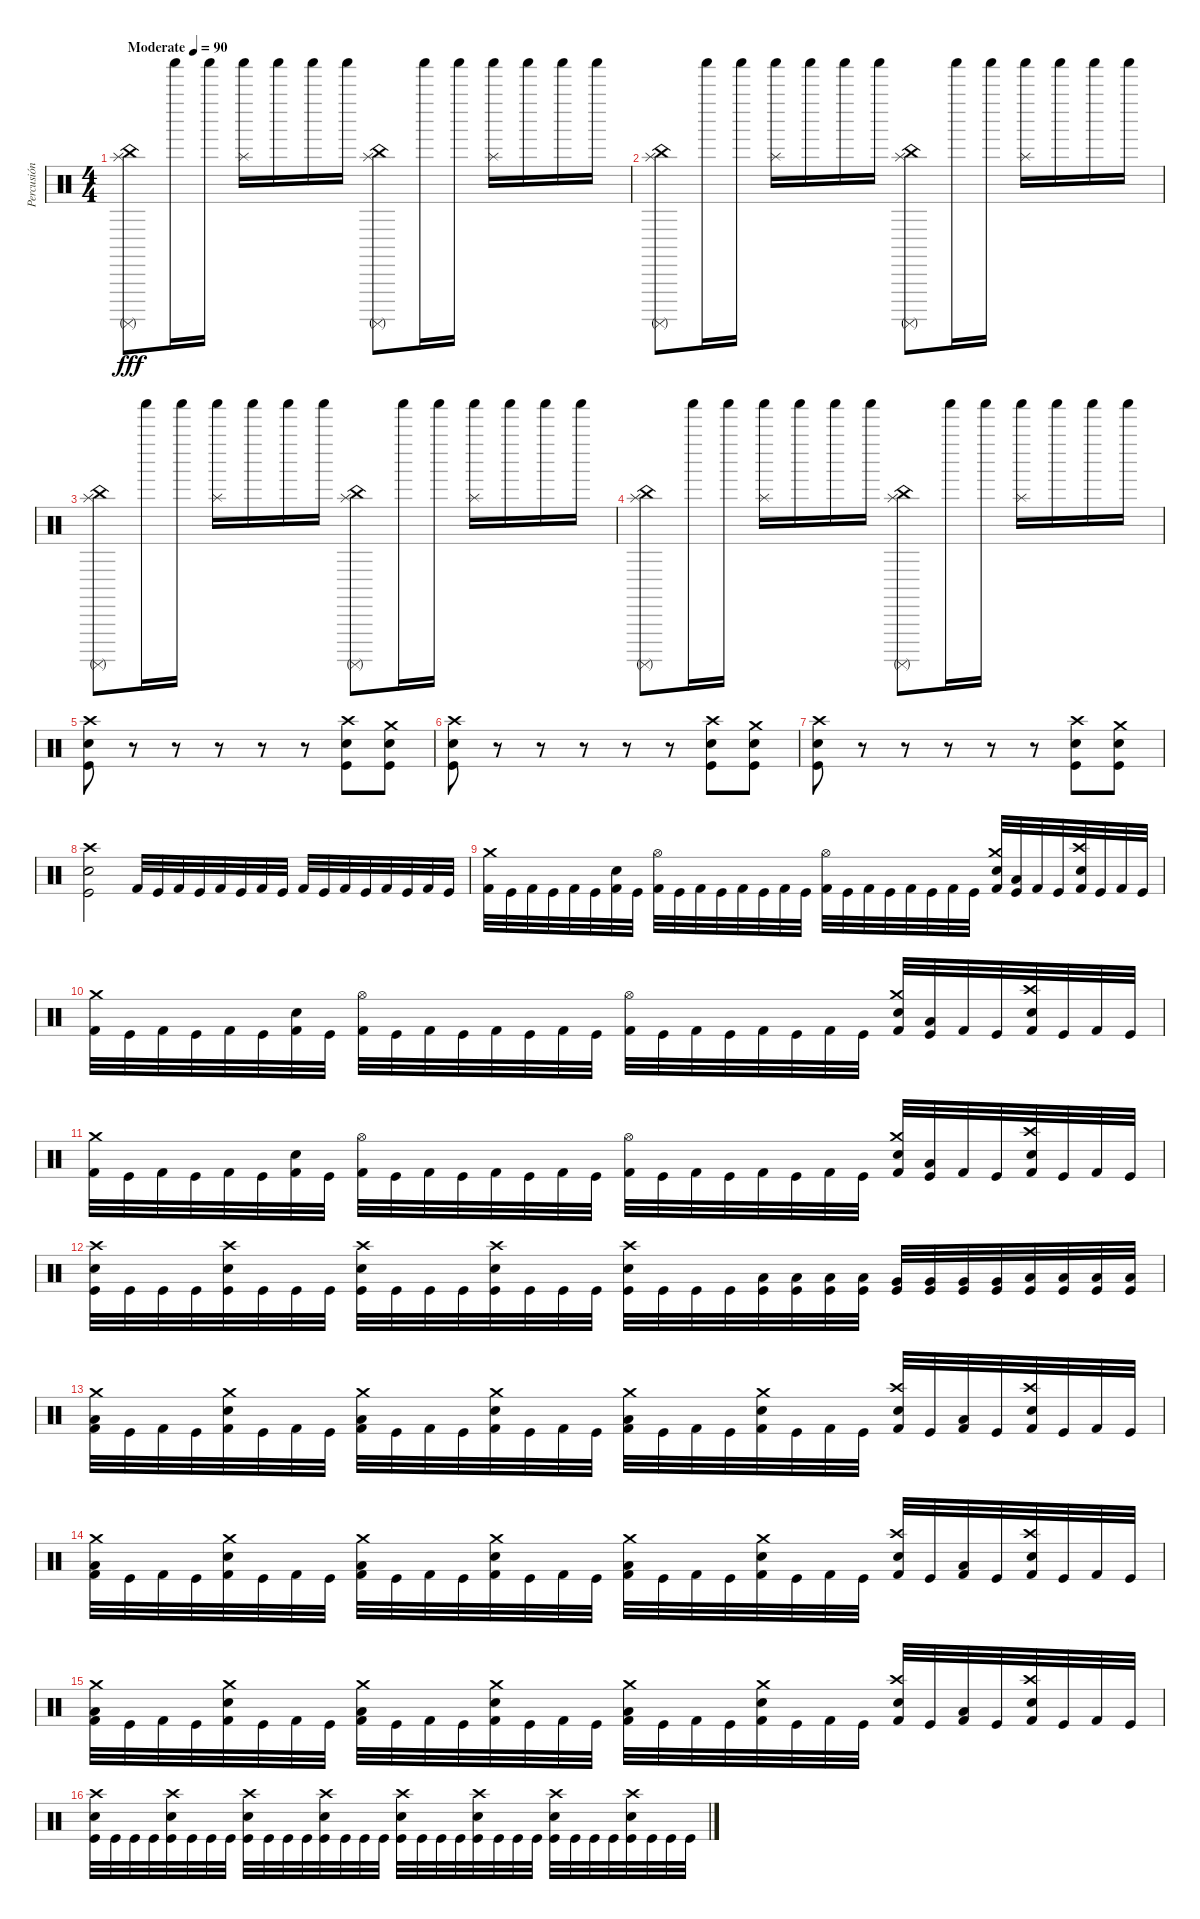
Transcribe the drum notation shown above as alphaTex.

\track ("Percusión" "Percusión") {instrument percussion}
\staff {score}
\articulation defaults
\ts (4 4)
\tempo (90 "Moderate")
\clef neutral
\ks c
("China (hit)" "Surdo (mute)" "Splash (hit)").8{dy fff volume 0} "Shaker (hit)".16{volume 16} "Shaker (hit)".16 ("Splash (hit)" "Shaker (hit)").16 "Shaker (hit)".16 "Shaker (hit)".16 "Shaker (hit)".16 ("China (hit)" "Surdo (mute)" "Splash (hit)").8 "Shaker (hit)".16 "Shaker (hit)".16 ("Splash (hit)" "Shaker (hit)").16 "Shaker (hit)".16 "Shaker (hit)".16 "Shaker (hit)".16 |
("China (hit)" "Surdo (mute)" "Splash (hit)").8 "Shaker (hit)".16 "Shaker (hit)".16 ("Splash (hit)" "Shaker (hit)").16 "Shaker (hit)".16 "Shaker (hit)".16 "Shaker (hit)".16 ("China (hit)" "Surdo (mute)" "Splash (hit)").8 "Shaker (hit)".16 "Shaker (hit)".16 ("Splash (hit)" "Shaker (hit)").16 "Shaker (hit)".16 "Shaker (hit)".16 "Shaker (hit)".16 |
("China (hit)" "Surdo (mute)" "Splash (hit)").8 "Shaker (hit)".16 "Shaker (hit)".16 ("Splash (hit)" "Shaker (hit)").16 "Shaker (hit)".16 "Shaker (hit)".16 "Shaker (hit)".16 ("China (hit)" "Surdo (mute)" "Splash (hit)").8 "Shaker (hit)".16 "Shaker (hit)".16 ("Splash (hit)" "Shaker (hit)").16 "Shaker (hit)".16 "Shaker (hit)".16 "Shaker (hit)".16 |
("China (hit)" "Surdo (mute)" "Splash (hit)").8 "Shaker (hit)".16 "Shaker (hit)".16 ("Splash (hit)" "Shaker (hit)").16 "Shaker (hit)".16 "Shaker (hit)".16 "Shaker (hit)".16 ("China (hit)" "Surdo (mute)" "Splash (hit)").8 "Shaker (hit)".16 "Shaker (hit)".16 ("Splash (hit)" "Shaker (hit)").16 "Shaker (hit)".16 "Shaker (hit)".16 "Shaker (hit)".16 |
("Snare (hit) 2" "Kick (hit)" "Crash high (hit)").8 r.8 r.8 r.8 r.8 r.8 ("Snare (hit) 2" "Kick (hit)" "Crash high (hit)").8 ("Snare (hit) 2" "Kick (hit)" "Crash medium (hit)").8 |
("Snare (hit) 2" "Kick (hit)" "Crash high (hit)").8 r.8 r.8 r.8 r.8 r.8 ("Snare (hit) 2" "Kick (hit)" "Crash high (hit)").8 ("Snare (hit) 2" "Kick (hit)" "Crash medium (hit)").8 |
("Snare (hit) 2" "Kick (hit)" "Crash high (hit)").8 r.8 r.8 r.8 r.8 r.8 ("Snare (hit) 2" "Kick (hit)" "Crash high (hit)").8 ("Snare (hit) 2" "Kick (hit)" "Crash medium (hit)").8 |
("Snare (hit) 2" "Kick (hit)" "Crash high (hit)").2 "Kick (hit) 2".32 "Kick (hit)".32 "Kick (hit) 2".32 "Kick (hit)".32 "Kick (hit) 2".32 "Kick (hit)".32 "Kick (hit) 2".32 "Kick (hit)".32 "Kick (hit) 2".32 "Kick (hit)".32 "Kick (hit) 2".32 "Kick (hit)".32 "Kick (hit) 2".32 "Kick (hit)".32 "Kick (hit) 2".32 "Kick (hit)".32 |
("Crash medium (hit)" "Kick (hit) 2").32 "Kick (hit)".32 "Kick (hit) 2".32 "Kick (hit)".32 "Kick (hit) 2".32 "Kick (hit)".32 ("Snare (hit) 2" "Kick (hit) 2").32 "Kick (hit)".32 ("Hi-Hat (open)" "Kick (hit) 2").32 "Kick (hit)".32 "Kick (hit) 2".32 "Kick (hit)".32 "Kick (hit) 2".32 "Kick (hit)".32 "Kick (hit) 2".32 "Kick (hit)".32 ("Hi-Hat (open)" "Kick (hit) 2").32 "Kick (hit)".32 "Kick (hit) 2".32 "Kick (hit)".32 "Kick (hit) 2".32 "Kick (hit)".32 "Kick (hit) 2".32 "Kick (hit)".32 ("Crash medium (hit)" "Snare (hit) 2" "Kick (hit) 2").32 ("Low Floor Tom (hit)" "Kick (hit)").32 "Kick (hit) 2".32 "Kick (hit)".32 ("Crash high (hit)" "Snare (hit) 2" "Kick (hit) 2").32 "Kick (hit)".32 "Kick (hit) 2".32 "Kick (hit)".32 |
("Crash medium (hit)" "Kick (hit) 2").32 "Kick (hit)".32 "Kick (hit) 2".32 "Kick (hit)".32 "Kick (hit) 2".32 "Kick (hit)".32 ("Snare (hit) 2" "Kick (hit) 2").32 "Kick (hit)".32 ("Hi-Hat (open)" "Kick (hit) 2").32 "Kick (hit)".32 "Kick (hit) 2".32 "Kick (hit)".32 "Kick (hit) 2".32 "Kick (hit)".32 "Kick (hit) 2".32 "Kick (hit)".32 ("Hi-Hat (open)" "Kick (hit) 2").32 "Kick (hit)".32 "Kick (hit) 2".32 "Kick (hit)".32 "Kick (hit) 2".32 "Kick (hit)".32 "Kick (hit) 2".32 "Kick (hit)".32 ("Crash medium (hit)" "Snare (hit) 2" "Kick (hit) 2").32 ("Low Floor Tom (hit)" "Kick (hit)").32 "Kick (hit) 2".32 "Kick (hit)".32 ("Crash high (hit)" "Snare (hit) 2" "Kick (hit) 2").32 "Kick (hit)".32 "Kick (hit) 2".32 "Kick (hit)".32 |
("Crash medium (hit)" "Kick (hit) 2").32 "Kick (hit)".32 "Kick (hit) 2".32 "Kick (hit)".32 "Kick (hit) 2".32 "Kick (hit)".32 ("Snare (hit) 2" "Kick (hit) 2").32 "Kick (hit)".32 ("Hi-Hat (open)" "Kick (hit) 2").32 "Kick (hit)".32 "Kick (hit) 2".32 "Kick (hit)".32 "Kick (hit) 2".32 "Kick (hit)".32 "Kick (hit) 2".32 "Kick (hit)".32 ("Hi-Hat (open)" "Kick (hit) 2").32 "Kick (hit)".32 "Kick (hit) 2".32 "Kick (hit)".32 "Kick (hit) 2".32 "Kick (hit)".32 "Kick (hit) 2".32 "Kick (hit)".32 ("Crash medium (hit)" "Snare (hit) 2" "Kick (hit) 2").32 ("Low Floor Tom (hit)" "Kick (hit)").32 "Kick (hit) 2".32 "Kick (hit)".32 ("Crash high (hit)" "Snare (hit) 2" "Kick (hit) 2").32 "Kick (hit)".32 "Kick (hit) 2".32 "Kick (hit)".32 |
("Crash high (hit)" "Snare (hit) 2" "Kick (hit)").32 "Kick (hit)".32 "Kick (hit)".32 "Kick (hit)".32 ("Crash high (hit)" "Snare (hit) 2" "Kick (hit)").32 "Kick (hit)".32 "Kick (hit)".32 "Kick (hit)".32 ("Crash high (hit)" "Snare (hit) 2" "Kick (hit)").32 "Kick (hit)".32 "Kick (hit)".32 "Kick (hit)".32 ("Crash high (hit)" "Snare (hit) 2" "Kick (hit)").32 "Kick (hit)".32 "Kick (hit)".32 "Kick (hit)".32 ("Crash high (hit)" "Snare (hit) 2" "Kick (hit)").32 "Kick (hit)".32 "Kick (hit)".32 "Kick (hit)".32 ("Low Tom (hit)" "Kick (hit)").32 ("Low Tom (hit)" "Kick (hit)").32 ("Low Tom (hit)" "Kick (hit)").32 ("Low Tom (hit)" "Kick (hit)").32 ("Very Low Tom (hit)" "Kick (hit)").32 ("Very Low Tom (hit)" "Kick (hit)").32 ("Very Low Tom (hit)" "Kick (hit)").32 ("Very Low Tom (hit)" "Kick (hit)").32 ("Low Floor Tom (hit)" "Kick (hit)").32 ("Low Floor Tom (hit)" "Kick (hit)").32 ("Low Floor Tom (hit)" "Kick (hit)").32 ("Low Floor Tom (hit)" "Kick (hit)").32 |
("Crash medium (hit)" "Low Floor Tom (hit)" "Kick (hit) 2").32 "Kick (hit)".32 "Kick (hit) 2".32 "Kick (hit)".32 ("Crash medium (hit)" "Snare (hit) 2" "Kick (hit) 2").32 "Kick (hit)".32 "Kick (hit) 2".32 "Kick (hit)".32 ("Crash medium (hit)" "Low Floor Tom (hit)" "Kick (hit) 2").32 "Kick (hit)".32 "Kick (hit) 2".32 "Kick (hit)".32 ("Crash medium (hit)" "Snare (hit) 2" "Kick (hit) 2").32 "Kick (hit)".32 "Kick (hit) 2".32 "Kick (hit)".32 ("Crash medium (hit)" "Low Floor Tom (hit)" "Kick (hit) 2").32 "Kick (hit)".32 "Kick (hit) 2".32 "Kick (hit)".32 ("Crash medium (hit)" "Snare (hit) 2" "Kick (hit) 2").32 "Kick (hit)".32 "Kick (hit) 2".32 "Kick (hit)".32 ("Crash high (hit)" "Snare (hit) 2" "Kick (hit) 2").32 "Kick (hit)".32 ("Low Floor Tom (hit)" "Kick (hit) 2").32 "Kick (hit)".32 ("Crash high (hit)" "Snare (hit) 2" "Kick (hit) 2").32 "Kick (hit)".32 "Kick (hit) 2".32 "Kick (hit)".32 |
("Crash medium (hit)" "Low Floor Tom (hit)" "Kick (hit) 2").32 "Kick (hit)".32 "Kick (hit) 2".32 "Kick (hit)".32 ("Crash medium (hit)" "Snare (hit) 2" "Kick (hit) 2").32 "Kick (hit)".32 "Kick (hit) 2".32 "Kick (hit)".32 ("Crash medium (hit)" "Low Floor Tom (hit)" "Kick (hit) 2").32 "Kick (hit)".32 "Kick (hit) 2".32 "Kick (hit)".32 ("Crash medium (hit)" "Snare (hit) 2" "Kick (hit) 2").32 "Kick (hit)".32 "Kick (hit) 2".32 "Kick (hit)".32 ("Crash medium (hit)" "Low Floor Tom (hit)" "Kick (hit) 2").32 "Kick (hit)".32 "Kick (hit) 2".32 "Kick (hit)".32 ("Crash medium (hit)" "Snare (hit) 2" "Kick (hit) 2").32 "Kick (hit)".32 "Kick (hit) 2".32 "Kick (hit)".32 ("Crash high (hit)" "Snare (hit) 2" "Kick (hit) 2").32 "Kick (hit)".32 ("Low Floor Tom (hit)" "Kick (hit) 2").32 "Kick (hit)".32 ("Crash high (hit)" "Snare (hit) 2" "Kick (hit) 2").32 "Kick (hit)".32 "Kick (hit) 2".32 "Kick (hit)".32 |
("Crash medium (hit)" "Low Floor Tom (hit)" "Kick (hit) 2").32 "Kick (hit)".32 "Kick (hit) 2".32 "Kick (hit)".32 ("Crash medium (hit)" "Snare (hit) 2" "Kick (hit) 2").32 "Kick (hit)".32 "Kick (hit) 2".32 "Kick (hit)".32 ("Crash medium (hit)" "Low Floor Tom (hit)" "Kick (hit) 2").32 "Kick (hit)".32 "Kick (hit) 2".32 "Kick (hit)".32 ("Crash medium (hit)" "Snare (hit) 2" "Kick (hit) 2").32 "Kick (hit)".32 "Kick (hit) 2".32 "Kick (hit)".32 ("Crash medium (hit)" "Low Floor Tom (hit)" "Kick (hit) 2").32 "Kick (hit)".32 "Kick (hit) 2".32 "Kick (hit)".32 ("Crash medium (hit)" "Snare (hit) 2" "Kick (hit) 2").32 "Kick (hit)".32 "Kick (hit) 2".32 "Kick (hit)".32 ("Crash high (hit)" "Snare (hit) 2" "Kick (hit) 2").32 "Kick (hit)".32 ("Low Floor Tom (hit)" "Kick (hit) 2").32 "Kick (hit)".32 ("Crash high (hit)" "Snare (hit) 2" "Kick (hit) 2").32 "Kick (hit)".32 "Kick (hit) 2".32 "Kick (hit)".32 |
("Crash high (hit)" "Snare (hit) 2" "Kick (hit)").32 "Kick (hit)".32 "Kick (hit)".32 "Kick (hit)".32 ("Crash high (hit)" "Snare (hit) 2" "Kick (hit)").32 "Kick (hit)".32 "Kick (hit)".32 "Kick (hit)".32 ("Crash high (hit)" "Snare (hit) 2" "Kick (hit)").32 "Kick (hit)".32 "Kick (hit)".32 "Kick (hit)".32 ("Crash high (hit)" "Snare (hit) 2" "Kick (hit)").32 "Kick (hit)".32 "Kick (hit)".32 "Kick (hit)".32 ("Crash high (hit)" "Snare (hit) 2" "Kick (hit)").32 "Kick (hit)".32 "Kick (hit)".32 "Kick (hit)".32 ("Crash high (hit)" "Snare (hit) 2" "Kick (hit)").32 "Kick (hit)".32 "Kick (hit)".32 "Kick (hit)".32 ("Crash high (hit)" "Snare (hit) 2" "Kick (hit)").32 "Kick (hit)".32 "Kick (hit)".32 "Kick (hit)".32 ("Crash high (hit)" "Snare (hit) 2" "Kick (hit)").32 "Kick (hit)".32 "Kick (hit)".32 "Kick (hit)".32
